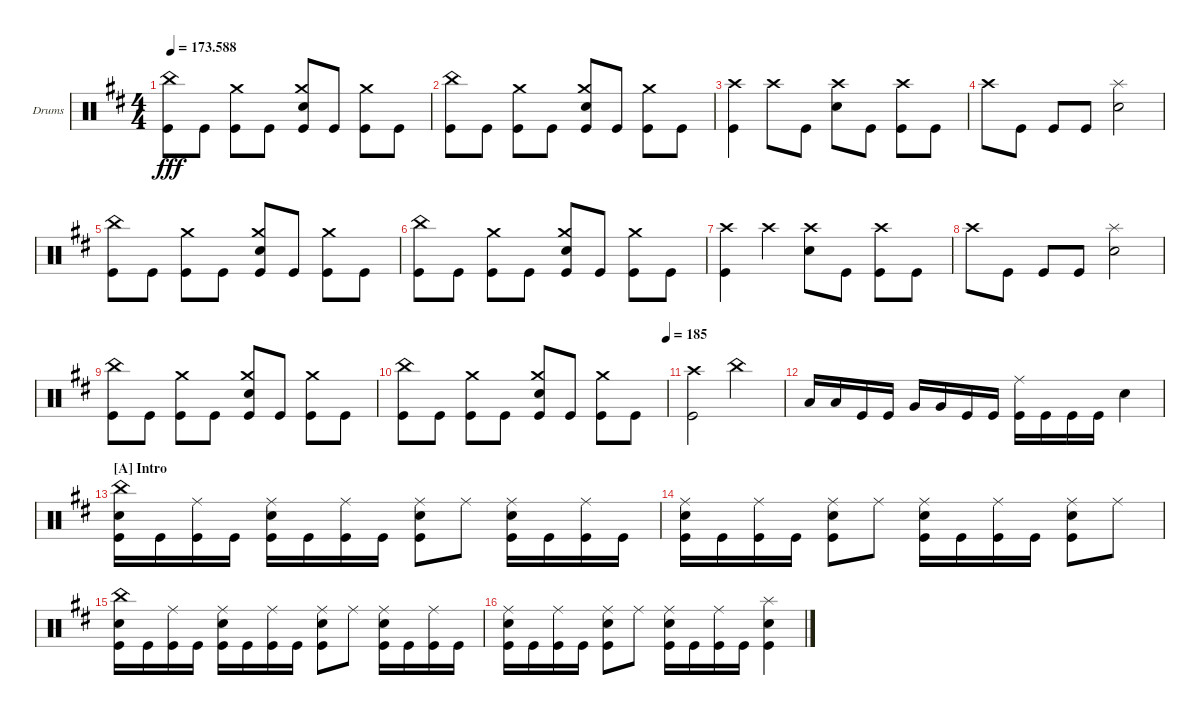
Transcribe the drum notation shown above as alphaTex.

\defaultSystemsLayout 4
\bracketExtendMode groupsimilarinstruments
\firstSystemTrackNameOrientation horizontal
\otherSystemsTrackNameOrientation horizontal
\track ("Drumkit" "Drums") {instrument percussion}
\staff {score}
\articulation defaults
\ts (4 4)
\tempo
173.588
\accidentals auto
\clef neutral
\ottava regular
\simile none
\ks bminor
("Kick (hit)" "China (hit)").8{dy fff} "Kick (hit)".8 ("Kick (hit)" "Crash medium (hit)").8 "Kick (hit)".8 ("Kick (hit)" "Crash medium (hit)" "Snare (hit) 2").8 "Kick (hit)".8 ("Kick (hit)" "Crash medium (hit)").8 "Kick (hit)".8 |
("Kick (hit)" "China (hit)").8 "Kick (hit)".8 ("Kick (hit)" "Crash medium (hit)").8 "Kick (hit)".8 ("Kick (hit)" "Crash medium (hit)" "Snare (hit) 2").8 "Kick (hit)".8 ("Kick (hit)" "Crash medium (hit)").8 "Kick (hit)".8 |
("Kick (hit)" "Crash high (hit)").4 "Crash high (hit)".8 "Kick (hit)".8 ("Crash high (hit)" "Snare (hit) 2").8 "Kick (hit)".8 ("Crash high (hit)" "Kick (hit)").8 "Kick (hit)".8 |
"Crash high (hit)".8 "Kick (hit)".8 "Kick (hit)".8 "Kick (hit)".8 ("Snare (hit) 2" "Splash (hit)").2 |
("Kick (hit)" "China (hit)").8 "Kick (hit)".8 ("Kick (hit)" "Crash medium (hit)").8 "Kick (hit)".8 ("Kick (hit)" "Crash medium (hit)" "Snare (hit) 2").8 "Kick (hit)".8 ("Kick (hit)" "Crash medium (hit)").8 "Kick (hit)".8 |
("Kick (hit)" "China (hit)").8 "Kick (hit)".8 ("Kick (hit)" "Crash medium (hit)").8 "Kick (hit)".8 ("Kick (hit)" "Crash medium (hit)" "Snare (hit) 2").8 "Kick (hit)".8 ("Kick (hit)" "Crash medium (hit)").8 "Kick (hit)".8 |
("Kick (hit)" "Crash high (hit)").4 "Crash high (hit)".4 ("Crash high (hit)" "Snare (hit) 2").8 "Kick (hit)".8 ("Crash high (hit)" "Kick (hit)").8 "Kick (hit)".8 |
"Crash high (hit)".8 "Kick (hit)".8 "Kick (hit)".8 "Kick (hit)".8 ("Snare (hit) 2" "Splash (hit)").2 |
("Kick (hit)" "China (hit)").8 "Kick (hit)".8 ("Kick (hit)" "Crash medium (hit)").8 "Kick (hit)".8 ("Kick (hit)" "Crash medium (hit)" "Snare (hit) 2").8 "Kick (hit)".8 ("Kick (hit)" "Crash medium (hit)").8 "Kick (hit)".8 |
\tempo (185 1)
("Kick (hit)" "China (hit)").8 "Kick (hit)".8 ("Kick (hit)" "Crash medium (hit)").8 "Kick (hit)".8 ("Kick (hit)" "Crash medium (hit)" "Snare (hit) 2").8 "Kick (hit)".8 ("Kick (hit)" "Crash medium (hit)").8 "Kick (hit)".8 |
("Kick (hit)" "Crash high (hit)").2 "China (hit)".2 |
"Low Tom (hit)".16 "Low Tom (hit)".16 "Kick (hit)".16 "Kick (hit)".16 "Very Low Tom (hit)".16 "Very Low Tom (hit)".16 "Kick (hit)".16 "Kick (hit)".16 ("Ride (middle)" "Kick (hit)").16 "Kick (hit)".16 "Kick (hit)".16 "Kick (hit)".16 "Snare (hit) 2".4 |
\section ("A" "Intro")
("Snare (hit) 2" "China (hit)" "Kick (hit)").16 "Kick (hit)".16 ("Kick (hit)" "Ride (middle)").16 "Kick (hit)".16 ("Snare (hit) 2" "Ride (middle)" "Kick (hit)").16 "Kick (hit)".16 ("Kick (hit)" "Ride (middle)").16 "Kick (hit)".16 ("Snare (hit) 2" "Ride (middle)" "Kick (hit)").8 "Ride (middle)".8 ("Snare (hit) 2" "Ride (middle)" "Kick (hit)").16 "Kick (hit)".16 ("Kick (hit)" "Ride (middle)").16 "Kick (hit)".16 |
("Snare (hit) 2" "Ride (middle)" "Kick (hit)").16 "Kick (hit)".16 ("Kick (hit)" "Ride (middle)").16 "Kick (hit)".16 ("Snare (hit) 2" "Ride (middle)" "Kick (hit)").8 "Ride (middle)".8 ("Snare (hit) 2" "Ride (middle)" "Kick (hit)").16 "Kick (hit)".16 ("Kick (hit)" "Ride (middle)").16 "Kick (hit)".16 ("Snare (hit) 2" "Ride (middle)" "Kick (hit)").8 "Ride (middle)".8 |
("Snare (hit) 2" "China (hit)" "Kick (hit)").16 "Kick (hit)".16 ("Kick (hit)" "Ride (middle)").16 "Kick (hit)".16 ("Snare (hit) 2" "Ride (middle)" "Kick (hit)").16 "Kick (hit)".16 ("Kick (hit)" "Ride (middle)").16 "Kick (hit)".16 ("Snare (hit) 2" "Ride (middle)" "Kick (hit)").8 "Ride (middle)".8 ("Snare (hit) 2" "Ride (middle)" "Kick (hit)").16 "Kick (hit)".16 ("Kick (hit)" "Ride (middle)").16 "Kick (hit)".16 |
("Snare (hit) 2" "Ride (middle)" "Kick (hit)").16 "Kick (hit)".16 ("Kick (hit)" "Ride (middle)").16 "Kick (hit)".16 ("Snare (hit) 2" "Ride (middle)" "Kick (hit)").8 "Ride (middle)".8 ("Snare (hit) 2" "Ride (middle)" "Kick (hit)").16 "Kick (hit)".16 ("Kick (hit)" "Ride (middle)").16 "Kick (hit)".16 ("Snare (hit) 2" "Kick (hit)" "Splash (hit)").4
